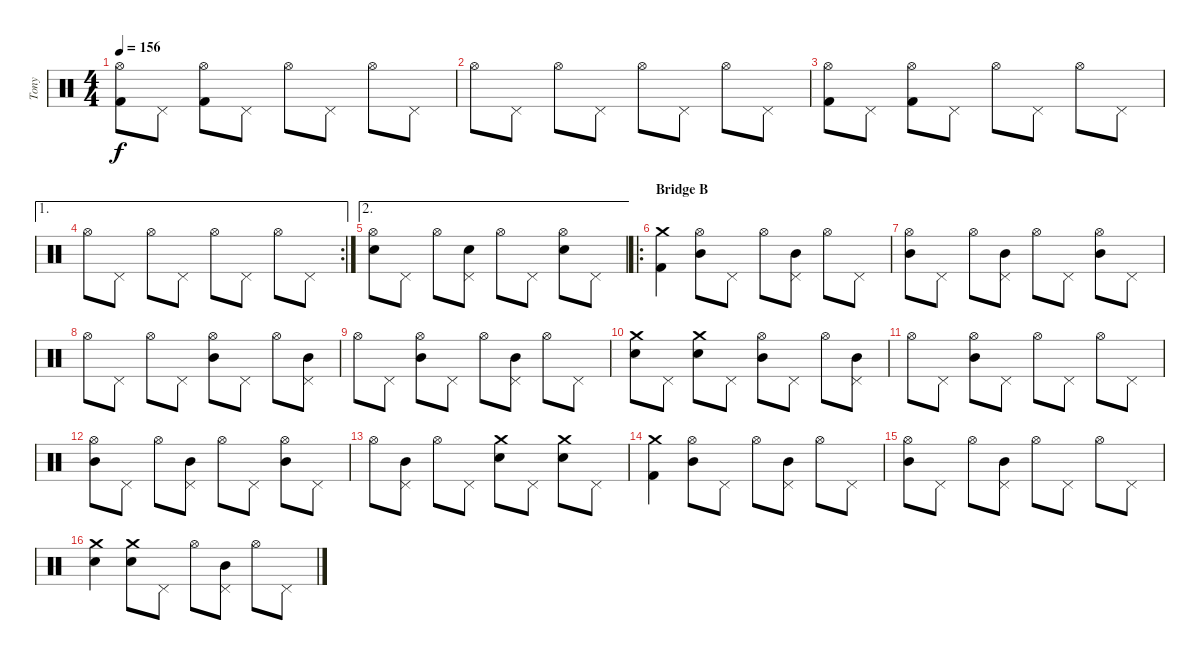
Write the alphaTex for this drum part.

\track ("Tony" "Tony") {instrument percussion}
\staff {score}
\articulation defaults
\ts (4 4)
\tempo 156
\clef neutral
\ks c
("Hi-Hat (open)" "Kick (hit) 2").8{dy f} "Pedal Hi-Hat (hit)".8 ("Hi-Hat (open)" "Kick (hit) 2").8 "Pedal Hi-Hat (hit)".8 "Hi-Hat (open)".8 "Pedal Hi-Hat (hit)".8 "Hi-Hat (open)".8 "Pedal Hi-Hat (hit)".8 |
"Hi-Hat (open)".8 "Pedal Hi-Hat (hit)".8 "Hi-Hat (open)".8 "Pedal Hi-Hat (hit)".8 "Hi-Hat (open)".8 "Pedal Hi-Hat (hit)".8 "Hi-Hat (open)".8 "Pedal Hi-Hat (hit)".8 |
("Hi-Hat (open)" "Kick (hit) 2").8 "Pedal Hi-Hat (hit)".8 ("Hi-Hat (open)" "Kick (hit) 2").8 "Pedal Hi-Hat (hit)".8 "Hi-Hat (open)".8 "Pedal Hi-Hat (hit)".8 "Hi-Hat (open)".8 "Pedal Hi-Hat (hit)".8 |
\ae 1
\rc 2 "Hi-Hat (open)".8 "Pedal Hi-Hat (hit)".8 "Hi-Hat (open)".8 "Pedal Hi-Hat (hit)".8 "Hi-Hat (open)".8 "Pedal Hi-Hat (hit)".8 "Hi-Hat (open)".8 "Pedal Hi-Hat (hit)".8
|
\ae 2
("Hi-Hat (open)" "Electric Snare (hit)").8 "Pedal Hi-Hat (hit)".8 "Hi-Hat (open)".8 ("Pedal Hi-Hat (hit)" "Electric Snare (hit)").8 "Hi-Hat (open)".8 "Pedal Hi-Hat (hit)".8 ("Hi-Hat (open)" "Electric Snare (hit)").8 "Pedal Hi-Hat (hit)".8 |
\ro
\section ("" "Bridge B")
("Crash medium (hit)" "Kick (hit) 2").4 ("Hi-Hat (open)" "Mid Tom (hit)").8 "Pedal Hi-Hat (hit)".8 "Hi-Hat (open)".8 ("Pedal Hi-Hat (hit)" "Mid Tom (hit)").8 "Hi-Hat (open)".8 "Pedal Hi-Hat (hit)".8 |
("Hi-Hat (open)" "Mid Tom (hit)").8 "Pedal Hi-Hat (hit)".8 "Hi-Hat (open)".8 ("Pedal Hi-Hat (hit)" "Mid Tom (hit)").8 "Hi-Hat (open)".8 "Pedal Hi-Hat (hit)".8 ("Hi-Hat (open)" "Mid Tom (hit)").8 "Pedal Hi-Hat (hit)".8 |
"Hi-Hat (open)".8 "Pedal Hi-Hat (hit)".8 "Hi-Hat (open)".8 "Pedal Hi-Hat (hit)".8 ("Hi-Hat (open)" "Mid Tom (hit)").8 "Pedal Hi-Hat (hit)".8 "Hi-Hat (open)".8 ("Pedal Hi-Hat (hit)" "Mid Tom (hit)").8 |
"Hi-Hat (open)".8 "Pedal Hi-Hat (hit)".8 ("Hi-Hat (open)" "Mid Tom (hit)").8 "Pedal Hi-Hat (hit)".8 "Hi-Hat (open)".8 ("Pedal Hi-Hat (hit)" "Mid Tom (hit)").8 "Hi-Hat (open)".8 "Pedal Hi-Hat (hit)".8 |
("Crash medium (hit)" "Electric Snare (hit)").8 "Pedal Hi-Hat (hit)".8 ("Crash medium (hit)" "Electric Snare (hit)").8 "Pedal Hi-Hat (hit)".8 ("Hi-Hat (open)" "Mid Tom (hit)").8 "Pedal Hi-Hat (hit)".8 "Hi-Hat (open)".8 ("Pedal Hi-Hat (hit)" "Mid Tom (hit)").8 |
"Hi-Hat (open)".8 "Pedal Hi-Hat (hit)".8 ("Hi-Hat (open)" "Mid Tom (hit)").8 "Pedal Hi-Hat (hit)".8 "Hi-Hat (open)".8 "Pedal Hi-Hat (hit)".8 "Hi-Hat (open)".8 "Pedal Hi-Hat (hit)".8 |
("Hi-Hat (open)" "Mid Tom (hit)").8 "Pedal Hi-Hat (hit)".8 "Hi-Hat (open)".8 ("Pedal Hi-Hat (hit)" "Mid Tom (hit)").8 "Hi-Hat (open)".8 "Pedal Hi-Hat (hit)".8 ("Hi-Hat (open)" "Mid Tom (hit)").8 "Pedal Hi-Hat (hit)".8 |
"Hi-Hat (open)".8 ("Pedal Hi-Hat (hit)" "Mid Tom (hit)").8 "Hi-Hat (open)".8 "Pedal Hi-Hat (hit)".8 ("Crash medium (hit)" "Electric Snare (hit)").8 "Pedal Hi-Hat (hit)".8 ("Crash medium (hit)" "Electric Snare (hit)").8 "Pedal Hi-Hat (hit)".8 |
("Crash medium (hit)" "Kick (hit) 2").4 ("Hi-Hat (open)" "Mid Tom (hit)").8 "Pedal Hi-Hat (hit)".8 "Hi-Hat (open)".8 ("Pedal Hi-Hat (hit)" "Mid Tom (hit)").8 "Hi-Hat (open)".8 "Pedal Hi-Hat (hit)".8 |
("Hi-Hat (open)" "Mid Tom (hit)").8 "Pedal Hi-Hat (hit)".8 "Hi-Hat (open)".8 ("Pedal Hi-Hat (hit)" "Mid Tom (hit)").8 "Hi-Hat (open)".8 "Pedal Hi-Hat (hit)".8 "Hi-Hat (open)".8 "Pedal Hi-Hat (hit)".8 |
("Crash medium (hit)" "Electric Snare (hit)").4 ("Crash medium (hit)" "Electric Snare (hit)").8 "Pedal Hi-Hat (hit)".8 "Hi-Hat (open)".8 ("Pedal Hi-Hat (hit)" "Mid Tom (hit)").8 "Hi-Hat (open)".8 "Pedal Hi-Hat (hit)".8
